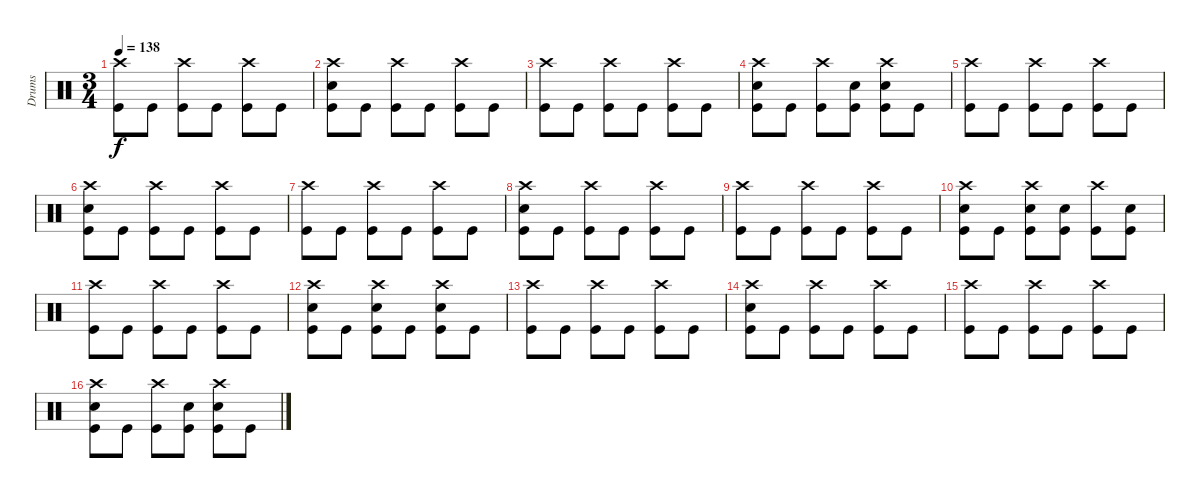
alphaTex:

\track ("Drums" "Drums") {instrument percussion}
\staff {score}
\articulation defaults
\ts (3 4)
\tempo 138
\clef neutral
\ks c
("Crash high (hit)" "Kick (hit)").8{dy f} "Kick (hit)".8 ("Crash high (hit)" "Kick (hit)").8 "Kick (hit)".8 ("Crash high (hit)" "Kick (hit)").8 "Kick (hit)".8 |
("Crash high (hit)" "Snare (hit) 2" "Kick (hit)").8 "Kick (hit)".8 ("Crash high (hit)" "Kick (hit)").8 "Kick (hit)".8 ("Crash high (hit)" "Kick (hit)").8 "Kick (hit)".8 |
("Crash high (hit)" "Kick (hit)").8 "Kick (hit)".8 ("Crash high (hit)" "Kick (hit)").8 "Kick (hit)".8 ("Crash high (hit)" "Kick (hit)").8 "Kick (hit)".8 |
("Crash high (hit)" "Snare (hit) 2" "Kick (hit)").8 "Kick (hit)".8 ("Crash high (hit)" "Kick (hit)").8 ("Snare (hit) 2" "Kick (hit)").8 ("Crash high (hit)" "Snare (hit) 2" "Kick (hit)").8 "Kick (hit)".8 |
("Crash high (hit)" "Kick (hit)").8 "Kick (hit)".8 ("Crash high (hit)" "Kick (hit)").8 "Kick (hit)".8 ("Crash high (hit)" "Kick (hit)").8 "Kick (hit)".8 |
("Crash high (hit)" "Snare (hit) 2" "Kick (hit)").8 "Kick (hit)".8 ("Crash high (hit)" "Kick (hit)").8 "Kick (hit)".8 ("Crash high (hit)" "Kick (hit)").8 "Kick (hit)".8 |
("Crash high (hit)" "Kick (hit)").8 "Kick (hit)".8 ("Crash high (hit)" "Kick (hit)").8 "Kick (hit)".8 ("Crash high (hit)" "Kick (hit)").8 "Kick (hit)".8 |
("Crash high (hit)" "Snare (hit) 2" "Kick (hit)").8 "Kick (hit)".8 ("Crash high (hit)" "Kick (hit)").8 "Kick (hit)".8 ("Crash high (hit)" "Kick (hit)").8 "Kick (hit)".8 |
("Crash high (hit)" "Kick (hit)").8 "Kick (hit)".8 ("Crash high (hit)" "Kick (hit)").8 "Kick (hit)".8 ("Crash high (hit)" "Kick (hit)").8 "Kick (hit)".8 |
("Crash high (hit)" "Snare (hit) 2" "Kick (hit)").8 "Kick (hit)".8 ("Crash high (hit)" "Snare (hit) 2" "Kick (hit)").8 ("Snare (hit) 2" "Kick (hit)").8 ("Crash high (hit)" "Kick (hit)").8 ("Snare (hit) 2" "Kick (hit)").8 |
("Crash high (hit)" "Kick (hit)").8 "Kick (hit)".8 ("Crash high (hit)" "Kick (hit)").8 "Kick (hit)".8 ("Crash high (hit)" "Kick (hit)").8 "Kick (hit)".8 |
("Crash high (hit)" "Snare (hit) 2" "Kick (hit)").8 "Kick (hit)".8 ("Crash high (hit)" "Snare (hit) 2" "Kick (hit)").8 "Kick (hit)".8 ("Crash high (hit)" "Snare (hit) 2" "Kick (hit)").8 "Kick (hit)".8 |
("Crash high (hit)" "Kick (hit)").8 "Kick (hit)".8 ("Crash high (hit)" "Kick (hit)").8 "Kick (hit)".8 ("Crash high (hit)" "Kick (hit)").8 "Kick (hit)".8 |
("Crash high (hit)" "Snare (hit) 2" "Kick (hit)").8 "Kick (hit)".8 ("Crash high (hit)" "Kick (hit)").8 "Kick (hit)".8 ("Crash high (hit)" "Kick (hit)").8 "Kick (hit)".8 |
("Crash high (hit)" "Kick (hit)").8 "Kick (hit)".8 ("Crash high (hit)" "Kick (hit)").8 "Kick (hit)".8 ("Crash high (hit)" "Kick (hit)").8 "Kick (hit)".8 |
("Crash high (hit)" "Snare (hit) 2" "Kick (hit)").8 "Kick (hit)".8 ("Crash high (hit)" "Kick (hit)").8 ("Snare (hit) 2" "Kick (hit)").8 ("Crash high (hit)" "Snare (hit) 2" "Kick (hit)").8 "Kick (hit)".8
